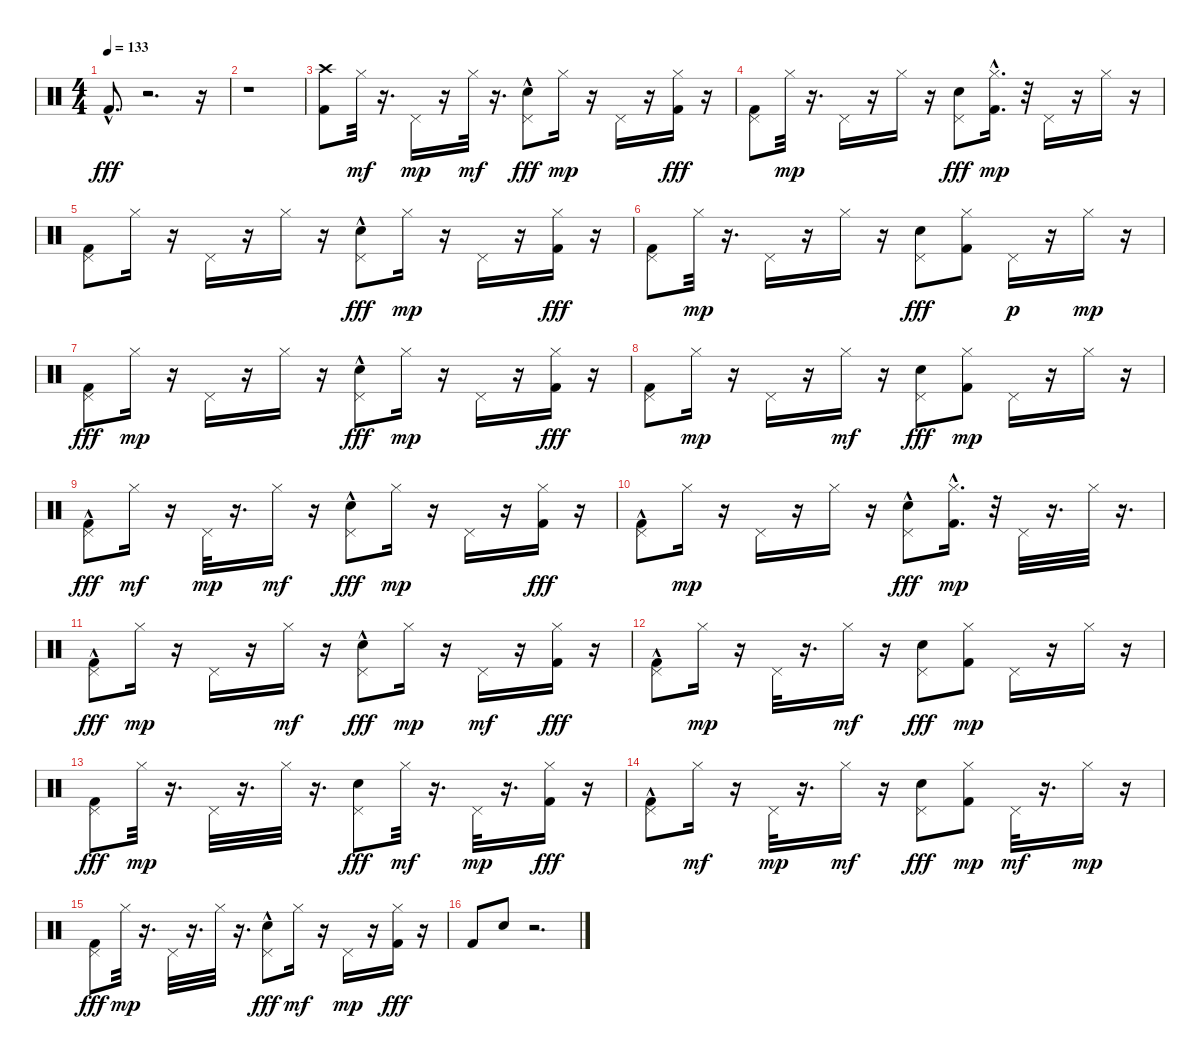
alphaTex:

\track "" {instrument percussion}
\staff {score}
\articulation defaults
\ts (4 4)
\tempo 133
\clef neutral
\ks c "Kick (hit) 2"{hac}.8{d dy fff}
r.2{d} r.16 |
r.1 |
("Crash high (hit)" "Kick (hit) 2").8 "Hi-Hat (closed)".32{dy mf} r.16{d} "Pedal Hi-Hat (hit)".16{dy mp} r.16 "Hi-Hat (closed)".32{dy mf} r.16{d} ("Pedal Hi-Hat (hit)" "Snare (hit) 2"{hac}).8{dy fff} "Hi-Hat (closed)".16{dy mp} r.16 "Pedal Hi-Hat (hit)".16 r.16 ("Hi-Hat (closed)" "Kick (hit) 2").16{dy fff} r.16 |
("Pedal Hi-Hat (hit)" "Kick (hit) 2").8 "Hi-Hat (closed)".32{dy mp} r.16{d} "Pedal Hi-Hat (hit)".16 r.16 "Hi-Hat (closed)".16 r.16 ("Pedal Hi-Hat (hit)" "Snare (hit) 2").8{dy fff} ("Kick (hit) 2"{hac} "Hi-Hat (closed)").16{d dy mp} r.32 "Pedal Hi-Hat (hit)".16 r.16 "Hi-Hat (closed)".16 r.16 |
("Kick (hit) 2" "Pedal Hi-Hat (hit)").8 "Hi-Hat (closed)".16 r.16 "Pedal Hi-Hat (hit)".16 r.16 "Hi-Hat (closed)".16 r.16 ("Pedal Hi-Hat (hit)" "Snare (hit) 2"{hac}).8{dy fff} "Hi-Hat (closed)".16{dy mp} r.16 "Pedal Hi-Hat (hit)".16 r.16 ("Hi-Hat (closed)" "Kick (hit) 2").16{dy fff} r.16 |
("Pedal Hi-Hat (hit)" "Kick (hit) 2").8 "Hi-Hat (closed)".32{dy mp} r.16{d} "Pedal Hi-Hat (hit)".16 r.16 "Hi-Hat (closed)".16 r.16 ("Pedal Hi-Hat (hit)" "Snare (hit) 2").8{dy fff} ("Hi-Hat (closed)" "Kick (hit) 2").8 "Pedal Hi-Hat (hit)".16{dy p} r.16 "Hi-Hat (closed)".16{dy mp} r.16 |
("Pedal Hi-Hat (hit)" "Kick (hit) 2").8{dy fff} "Hi-Hat (closed)".16{dy mp} r.16 "Pedal Hi-Hat (hit)".16 r.16 "Hi-Hat (closed)".16 r.16 ("Pedal Hi-Hat (hit)" "Snare (hit) 2"{hac}).8{dy fff} "Hi-Hat (closed)".16{dy mp} r.16 "Pedal Hi-Hat (hit)".16 r.16 ("Hi-Hat (closed)" "Kick (hit) 2").16{dy fff} r.16 |
("Pedal Hi-Hat (hit)" "Kick (hit) 2").8 "Hi-Hat (closed)".16{dy mp} r.16 "Pedal Hi-Hat (hit)".16 r.16 "Hi-Hat (closed)".16{dy mf} r.16 ("Pedal Hi-Hat (hit)" "Snare (hit) 2").8{dy fff} ("Kick (hit) 2" "Hi-Hat (closed)").8{dy mp} "Pedal Hi-Hat (hit)".16 r.16 "Hi-Hat (closed)".16 r.16 |
("Pedal Hi-Hat (hit)" "Kick (hit) 2"{hac}).8{dy fff} "Hi-Hat (closed)".16{dy mf} r.16 "Pedal Hi-Hat (hit)".32{dy mp} r.16{d} "Hi-Hat (closed)".16{dy mf} r.16 ("Pedal Hi-Hat (hit)" "Snare (hit) 2"{hac}).8{dy fff} "Hi-Hat (closed)".16{dy mp} r.16 "Pedal Hi-Hat (hit)".16 r.16 ("Hi-Hat (closed)" "Kick (hit) 2").16{dy fff} r.16 |
("Pedal Hi-Hat (hit)" "Kick (hit) 2"{hac}).8 "Hi-Hat (closed)".16{dy mp} r.16 "Pedal Hi-Hat (hit)".16 r.16 "Hi-Hat (closed)".16 r.16 ("Pedal Hi-Hat (hit)" "Snare (hit) 2"{hac}).8{dy fff} ("Kick (hit) 2"{hac} "Hi-Hat (closed)").16{d dy mp} r.32 "Pedal Hi-Hat (hit)".32 r.16{d} "Hi-Hat (closed)".32 r.16{d} |
("Pedal Hi-Hat (hit)" "Kick (hit) 2"{hac}).8{dy fff} "Hi-Hat (closed)".16{dy mp} r.16 "Pedal Hi-Hat (hit)".16 r.16 "Hi-Hat (closed)".16{dy mf} r.16 ("Pedal Hi-Hat (hit)" "Snare (hit) 2"{hac}).8{dy fff} "Hi-Hat (closed)".16{dy mp} r.16 "Pedal Hi-Hat (hit)".16{dy mf} r.16 ("Hi-Hat (closed)" "Kick (hit) 2").16{dy fff} r.16 |
("Pedal Hi-Hat (hit)" "Kick (hit) 2"{hac}).8 "Hi-Hat (closed)".16{dy mp} r.16 "Pedal Hi-Hat (hit)".32 r.16{d} "Hi-Hat (closed)".16{dy mf} r.16 ("Pedal Hi-Hat (hit)" "Snare (hit) 2").8{dy fff} ("Kick (hit) 2" "Hi-Hat (closed)").8{dy mp} "Pedal Hi-Hat (hit)".16 r.16 "Hi-Hat (closed)".16 r.16 |
("Pedal Hi-Hat (hit)" "Kick (hit) 2").8{dy fff} "Hi-Hat (closed)".32{dy mp} r.16{d} "Pedal Hi-Hat (hit)".32 r.16{d} "Hi-Hat (closed)".32 r.16{d} ("Pedal Hi-Hat (hit)" "Snare (hit) 2").8{dy fff} "Hi-Hat (closed)".32{dy mf} r.16{d} "Pedal Hi-Hat (hit)".32{dy mp} r.16{d} ("Hi-Hat (closed)" "Kick (hit) 2").16{dy fff} r.16 |
("Pedal Hi-Hat (hit)" "Kick (hit) 2"{hac}).8 "Hi-Hat (closed)".16{dy mf} r.16 "Pedal Hi-Hat (hit)".32{dy mp} r.16{d} "Hi-Hat (closed)".16{dy mf} r.16 ("Pedal Hi-Hat (hit)" "Snare (hit) 2").8{dy fff} ("Kick (hit) 2" "Hi-Hat (closed)").8{dy mp} "Pedal Hi-Hat (hit)".32{dy mf} r.16{d} "Hi-Hat (closed)".16{dy mp} r.16 |
("Pedal Hi-Hat (hit)" "Kick (hit) 2").8{dy fff} "Hi-Hat (closed)".32{dy mp} r.16{d} "Pedal Hi-Hat (hit)".32 r.16{d} "Hi-Hat (closed)".32 r.16{d} ("Pedal Hi-Hat (hit)" "Snare (hit) 2"{hac}).8{dy fff} "Hi-Hat (closed)".16{dy mf} r.16 "Pedal Hi-Hat (hit)".16{dy mp} r.16 ("Hi-Hat (closed)" "Kick (hit) 2").16{dy fff} r.16 |
"Kick (hit) 2".8 "Snare (hit) 2".8 r.2{d}
